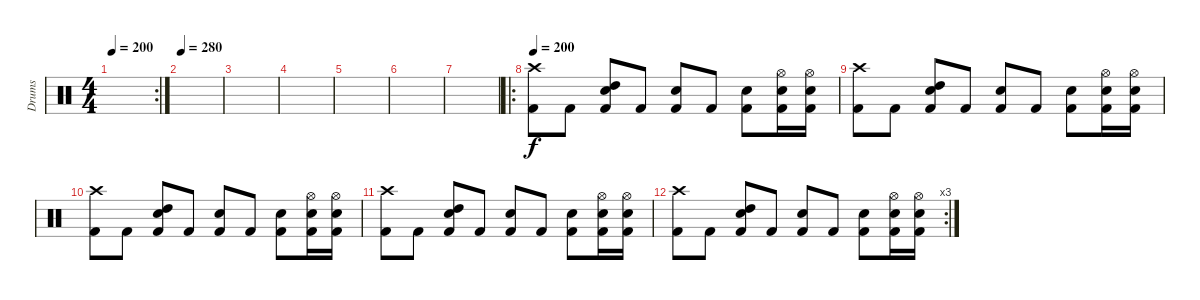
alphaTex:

\track ("Drums" "Drums") {instrument percussion}
\staff {score}
\articulation defaults
\rc 2
\ts (4 4)
\tempo 200
\clef neutral
\ks c
|
\tempo 280
|
|
|
|
|
|
\ro
\tempo 200
("Kick (hit) 2" "Crash high (hit)").8 "Kick (hit) 2".8 ("Kick (hit) 2" "Electric Snare (hit)" "High Tom (hit)").8 "Kick (hit) 2".8 ("Kick (hit) 2" "Electric Snare (hit)").8 "Kick (hit) 2".8 ("Kick (hit) 2" "Electric Snare (hit)").8 ("Kick (hit) 2" "Hi-Hat (open)" "Electric Snare (hit)").16 ("Kick (hit) 2" "Hi-Hat (open)" "Electric Snare (hit)").16 |
("Kick (hit) 2" "Crash high (hit)").8 "Kick (hit) 2".8 ("Kick (hit) 2" "Electric Snare (hit)" "High Tom (hit)").8 "Kick (hit) 2".8 ("Kick (hit) 2" "Electric Snare (hit)").8 "Kick (hit) 2".8 ("Kick (hit) 2" "Electric Snare (hit)").8 ("Kick (hit) 2" "Hi-Hat (open)" "Electric Snare (hit)").16 ("Kick (hit) 2" "Hi-Hat (open)" "Electric Snare (hit)").16 |
("Kick (hit) 2" "Crash high (hit)").8 "Kick (hit) 2".8 ("Kick (hit) 2" "Electric Snare (hit)" "High Tom (hit)").8 "Kick (hit) 2".8 ("Kick (hit) 2" "Electric Snare (hit)").8 "Kick (hit) 2".8 ("Kick (hit) 2" "Electric Snare (hit)").8 ("Kick (hit) 2" "Hi-Hat (open)" "Electric Snare (hit)").16 ("Kick (hit) 2" "Hi-Hat (open)" "Electric Snare (hit)").16 |
("Kick (hit) 2" "Crash high (hit)").8 "Kick (hit) 2".8 ("Kick (hit) 2" "Electric Snare (hit)" "High Tom (hit)").8 "Kick (hit) 2".8 ("Kick (hit) 2" "Electric Snare (hit)").8 "Kick (hit) 2".8 ("Kick (hit) 2" "Electric Snare (hit)").8 ("Kick (hit) 2" "Hi-Hat (open)" "Electric Snare (hit)").16 ("Kick (hit) 2" "Hi-Hat (open)" "Electric Snare (hit)").16 |
\rc 3
("Kick (hit) 2" "Crash high (hit)").8 "Kick (hit) 2".8 ("Kick (hit) 2" "Electric Snare (hit)" "High Tom (hit)").8 "Kick (hit) 2".8 ("Kick (hit) 2" "Electric Snare (hit)").8 "Kick (hit) 2".8 ("Kick (hit) 2" "Electric Snare (hit)").8 ("Kick (hit) 2" "Hi-Hat (open)" "Electric Snare (hit)").16 ("Kick (hit) 2" "Hi-Hat (open)" "Electric Snare (hit)").16
